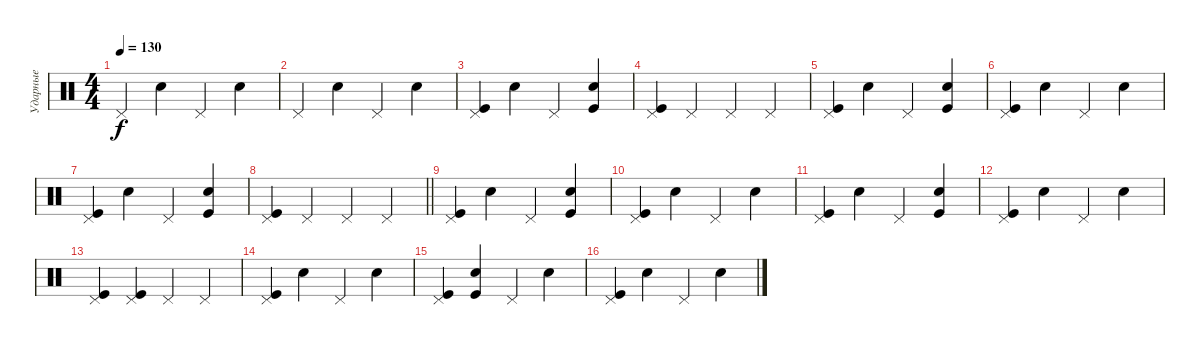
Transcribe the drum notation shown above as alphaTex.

\track ("Ударные" "Ударные") {instrument percussion}
\staff {score}
\articulation defaults
\ts (4 4)
\tempo 130
\clef neutral
\ks c "Pedal Hi-Hat (hit)".4{dy f} "Snare (hit)".4 "Pedal Hi-Hat (hit)".4 "Snare (hit)".4
|
"Pedal Hi-Hat (hit)".4 "Snare (hit)".4 "Pedal Hi-Hat (hit)".4 "Snare (hit)".4 |
("Pedal Hi-Hat (hit)" "Kick (hit)").4 "Snare (hit)".4 "Pedal Hi-Hat (hit)".4 ("Snare (hit)" "Kick (hit)").4 |
("Pedal Hi-Hat (hit)" "Kick (hit)").4 "Pedal Hi-Hat (hit)".4 "Pedal Hi-Hat (hit)".4 "Pedal Hi-Hat (hit)".4 |
("Pedal Hi-Hat (hit)" "Kick (hit)").4 "Snare (hit)".4 "Pedal Hi-Hat (hit)".4 ("Snare (hit)" "Kick (hit)").4 |
("Pedal Hi-Hat (hit)" "Kick (hit)").4 "Snare (hit)".4 "Pedal Hi-Hat (hit)".4 "Snare (hit)".4 |
("Pedal Hi-Hat (hit)" "Kick (hit)").4 "Snare (hit)".4 "Pedal Hi-Hat (hit)".4 ("Snare (hit)" "Kick (hit)").4 |
\barLineRight lightlight
("Pedal Hi-Hat (hit)" "Kick (hit)").4 "Pedal Hi-Hat (hit)".4 "Pedal Hi-Hat (hit)".4 "Pedal Hi-Hat (hit)".4 |
("Pedal Hi-Hat (hit)" "Kick (hit)").4 "Snare (hit)".4 "Pedal Hi-Hat (hit)".4 ("Snare (hit)" "Kick (hit)").4 |
("Pedal Hi-Hat (hit)" "Kick (hit)").4 "Snare (hit)".4 "Pedal Hi-Hat (hit)".4 "Snare (hit)".4 |
("Pedal Hi-Hat (hit)" "Kick (hit)").4 "Snare (hit)".4 "Pedal Hi-Hat (hit)".4 ("Snare (hit)" "Kick (hit)").4 |
("Pedal Hi-Hat (hit)" "Kick (hit)").4 "Snare (hit)".4 "Pedal Hi-Hat (hit)".4 "Snare (hit)".4 |
("Pedal Hi-Hat (hit)" "Kick (hit)").4 ("Pedal Hi-Hat (hit)" "Kick (hit)").4 "Pedal Hi-Hat (hit)".4 "Pedal Hi-Hat (hit)".4 |
("Pedal Hi-Hat (hit)" "Kick (hit)").4 "Snare (hit)".4 "Pedal Hi-Hat (hit)".4 "Snare (hit)".4 |
("Pedal Hi-Hat (hit)" "Kick (hit)").4 ("Snare (hit)" "Kick (hit)").4 "Pedal Hi-Hat (hit)".4 "Snare (hit)".4 |
("Pedal Hi-Hat (hit)" "Kick (hit)").4 "Snare (hit)".4 "Pedal Hi-Hat (hit)".4 "Snare (hit)".4
